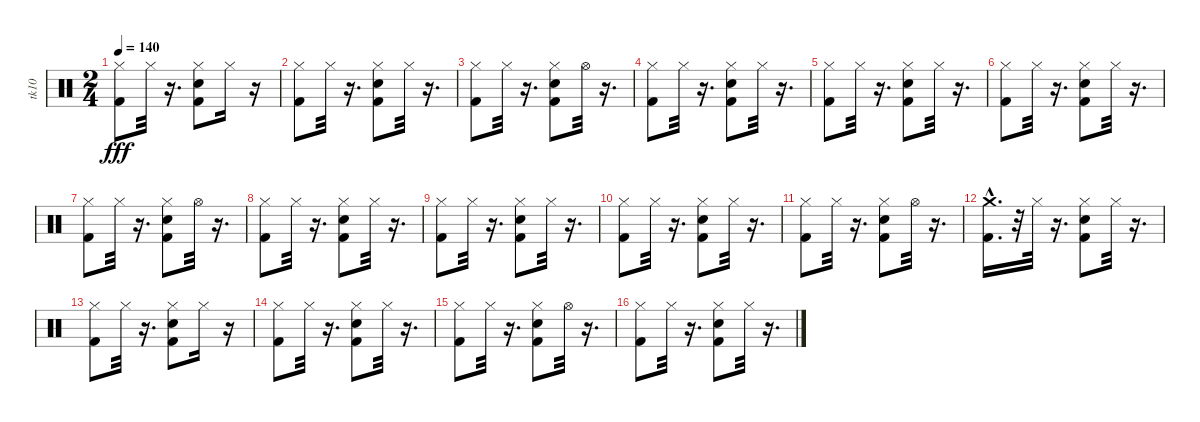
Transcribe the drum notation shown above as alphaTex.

\track ("tk10" "tk10") {instrument percussion}
\staff {score}
\articulation defaults
\ts (2 4)
\tempo 140
\clef neutral
\ks c
("Kick (hit) 2" "Hi-Hat (closed)").8{dy fff} "Hi-Hat (closed)".32 r.16{d} ("Snare (hit) 2" "Kick (hit) 2" "Hi-Hat (closed)").8 "Hi-Hat (closed)".16 r.16 |
("Kick (hit) 2" "Hi-Hat (closed)").8 "Hi-Hat (closed)".32 r.16{d} ("Snare (hit) 2" "Kick (hit) 2" "Hi-Hat (closed)").8 "Hi-Hat (closed)".32 r.16{d} |
("Kick (hit) 2" "Hi-Hat (closed)").8 "Hi-Hat (closed)".32 r.16{d} ("Kick (hit) 2" "Snare (hit) 2" "Hi-Hat (closed)").8 "Hi-Hat (open)".32 r.16{d} |
("Kick (hit) 2" "Hi-Hat (closed)").8 "Hi-Hat (closed)".32 r.16{d} ("Snare (hit) 2" "Kick (hit) 2" "Hi-Hat (closed)").8 "Hi-Hat (closed)".32 r.16{d} |
("Kick (hit) 2" "Hi-Hat (closed)").8 "Hi-Hat (closed)".32 r.16{d} ("Snare (hit) 2" "Kick (hit) 2" "Hi-Hat (closed)").8 "Hi-Hat (closed)".32 r.16{d} |
("Kick (hit) 2" "Hi-Hat (closed)").8 "Hi-Hat (closed)".32 r.16{d} ("Kick (hit) 2" "Hi-Hat (closed)" "Snare (hit) 2").8 "Hi-Hat (closed)".32 r.16{d} |
("Kick (hit) 2" "Hi-Hat (closed)").8 "Hi-Hat (closed)".32 r.16{d} ("Snare (hit) 2" "Kick (hit) 2" "Hi-Hat (closed)").8 "Hi-Hat (open)".32 r.16{d} |
("Kick (hit) 2" "Hi-Hat (closed)").8 "Hi-Hat (closed)".32 r.16{d} ("Snare (hit) 2" "Kick (hit) 2" "Hi-Hat (closed)").8 "Hi-Hat (closed)".32 r.16{d} |
("Kick (hit) 2" "Hi-Hat (closed)").8 "Hi-Hat (closed)".32 r.16{d} ("Snare (hit) 2" "Kick (hit) 2" "Hi-Hat (closed)").8 "Hi-Hat (closed)".32 r.16{d} |
("Kick (hit) 2" "Hi-Hat (closed)").8 "Hi-Hat (closed)".32 r.16{d} ("Snare (hit) 2" "Kick (hit) 2" "Hi-Hat (closed)").8 "Hi-Hat (closed)".32 r.16{d} |
("Kick (hit) 2" "Hi-Hat (closed)").8 "Hi-Hat (closed)".32 r.16{d} ("Snare (hit) 2" "Kick (hit) 2" "Hi-Hat (closed)").8 "Hi-Hat (open)".32 r.16{d} |
("Crash medium (hit)" "Kick (hit) 2"{hac}).16{d} r.32 "Hi-Hat (closed)".32 r.16{d} ("Snare (hit) 2" "Hi-Hat (closed)" "Kick (hit) 2").8 "Hi-Hat (closed)".32 r.16{d} |
("Kick (hit) 2" "Hi-Hat (closed)").8 "Hi-Hat (closed)".32 r.16{d} ("Snare (hit) 2" "Kick (hit) 2" "Hi-Hat (closed)").8 "Hi-Hat (closed)".16 r.16 |
("Kick (hit) 2" "Hi-Hat (closed)").8 "Hi-Hat (closed)".32 r.16{d} ("Snare (hit) 2" "Kick (hit) 2" "Hi-Hat (closed)").8 "Hi-Hat (closed)".32 r.16{d} |
("Kick (hit) 2" "Hi-Hat (closed)").8 "Hi-Hat (closed)".32 r.16{d} ("Kick (hit) 2" "Snare (hit) 2" "Hi-Hat (closed)").8 "Hi-Hat (open)".32 r.16{d} |
("Kick (hit) 2" "Hi-Hat (closed)").8 "Hi-Hat (closed)".32 r.16{d} ("Hi-Hat (closed)" "Snare (hit) 2" "Kick (hit) 2").8 "Hi-Hat (closed)".32 r.16{d}
